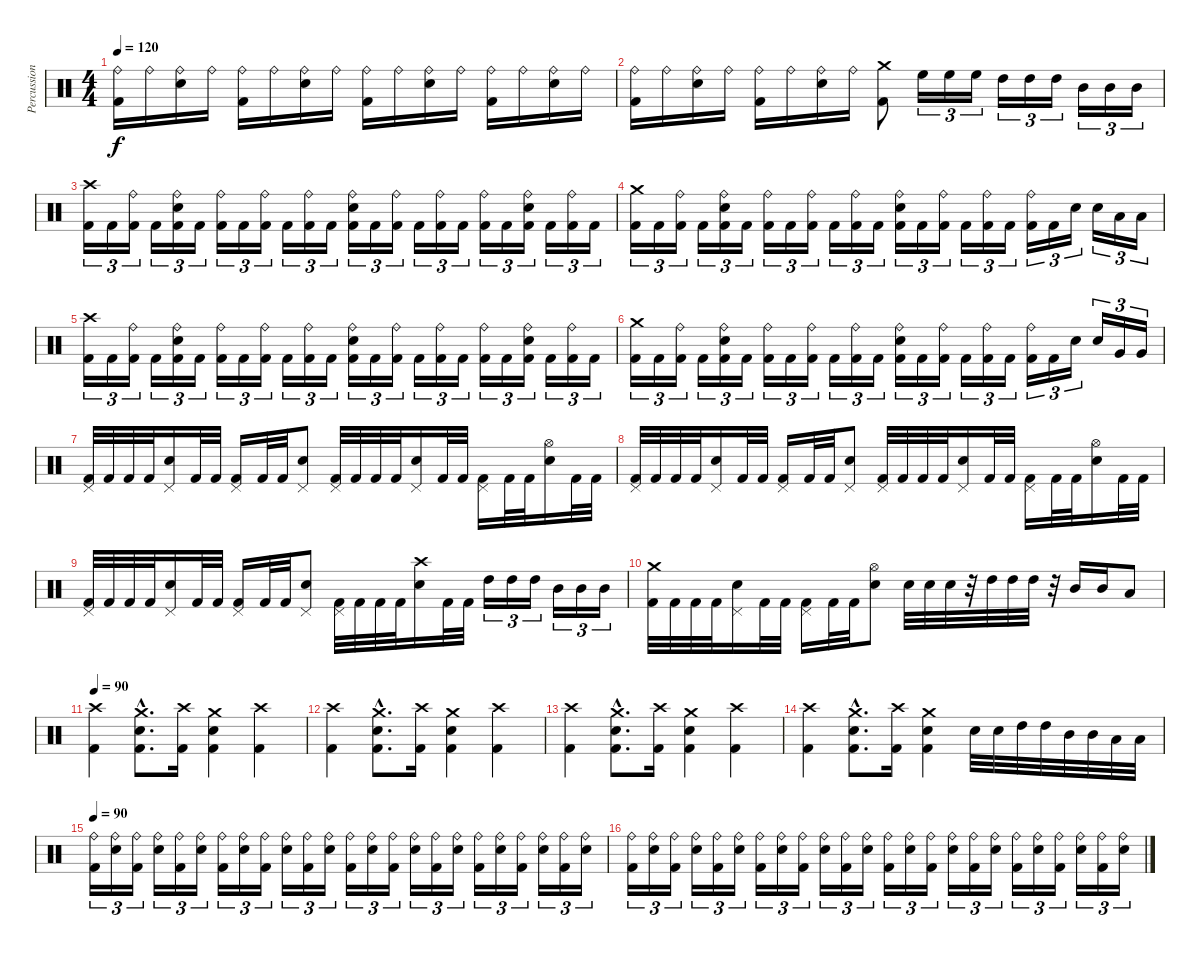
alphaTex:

\track ("Percussion" "Percussion") {instrument percussion}
\staff {score}
\articulation defaults
\ts (4 4)
\tempo 120
\clef neutral
\ks c
("Ride (bell)" "Kick (hit) 2").16{dy f} "Ride (bell)".16 ("Ride (bell)" "Electric Snare (hit)").16 "Ride (bell)".16 ("Ride (bell)" "Kick (hit) 2").16 "Ride (bell)".16 ("Ride (bell)" "Electric Snare (hit)").16 "Ride (bell)".16 ("Ride (bell)" "Kick (hit) 2").16 "Ride (bell)".16 ("Ride (bell)" "Electric Snare (hit)").16 "Ride (bell)".16 ("Ride (bell)" "Kick (hit) 2").16 "Ride (bell)".16 ("Ride (bell)" "Electric Snare (hit)").16 "Ride (bell)".16 |
("Ride (bell)" "Kick (hit) 2").16 "Ride (bell)".16 ("Ride (bell)" "Electric Snare (hit)").16 "Ride (bell)".16 ("Ride (bell)" "Kick (hit) 2").16 "Ride (bell)".16 ("Ride (bell)" "Electric Snare (hit)").16 "Ride (bell)".16 ("Crash medium (hit)" "Kick (hit) 2").8 "High Floor Tom (hit)".16{tu (3 2)} "High Floor Tom (hit)".16{tu (3 2)} "High Floor Tom (hit)".16{tu (3 2)} "High Tom (hit)".16{tu (3 2)} "High Tom (hit)".16{tu (3 2)} "High Tom (hit)".16{tu (3 2)} "Mid Tom (hit)".16{tu (3 2)} "Mid Tom (hit)".16{tu (3 2)} "Mid Tom (hit)".16{tu (3 2)} |
("Crash high (hit)" "Kick (hit) 2").16{tu (3 2)} "Kick (hit) 2".16{tu (3 2)} ("Ride (bell)" "Kick (hit) 2").16{tu (3 2)} "Kick (hit) 2".16{tu (3 2)} ("Ride (bell)" "Electric Snare (hit)" "Kick (hit) 2").16{tu (3 2)} "Kick (hit) 2".16{tu (3 2)} ("Ride (bell)" "Kick (hit) 2").16{tu (3 2)} "Kick (hit) 2".16{tu (3 2)} ("Ride (bell)" "Kick (hit) 2").16{tu (3 2)} "Kick (hit) 2".16{tu (3 2)} ("Ride (bell)" "Kick (hit) 2").16{tu (3 2)} "Kick (hit) 2".16{tu (3 2)} ("Ride (bell)" "Electric Snare (hit)" "Kick (hit) 2").16{tu (3 2)} "Kick (hit) 2".16{tu (3 2)} ("Ride (bell)" "Kick (hit) 2").16{tu (3 2)} "Kick (hit) 2".16{tu (3 2)} ("Ride (bell)" "Kick (hit) 2").16{tu (3 2)} "Kick (hit) 2".16{tu (3 2)} ("Ride (bell)" "Kick (hit) 2").16{tu (3 2)} "Kick (hit) 2".16{tu (3 2)} ("Ride (bell)" "Electric Snare (hit)" "Kick (hit) 2").16{tu (3 2)} "Kick (hit) 2".16{tu (3 2)} ("Ride (bell)" "Kick (hit) 2").16{tu (3 2)} "Kick (hit) 2".16{tu (3 2)} |
("Crash medium (hit)" "Kick (hit) 2").16{tu (3 2)} "Kick (hit) 2".16{tu (3 2)} ("Ride (bell)" "Kick (hit) 2").16{tu (3 2)} "Kick (hit) 2".16{tu (3 2)} ("Ride (bell)" "Electric Snare (hit)" "Kick (hit) 2").16{tu (3 2)} "Kick (hit) 2".16{tu (3 2)} ("Ride (bell)" "Kick (hit) 2").16{tu (3 2)} "Kick (hit) 2".16{tu (3 2)} ("Ride (bell)" "Kick (hit) 2").16{tu (3 2)} "Kick (hit) 2".16{tu (3 2)} ("Ride (bell)" "Kick (hit) 2").16{tu (3 2)} "Kick (hit) 2".16{tu (3 2)} ("Ride (bell)" "Electric Snare (hit)" "Kick (hit) 2").16{tu (3 2)} "Kick (hit) 2".16{tu (3 2)} ("Ride (bell)" "Kick (hit) 2").16{tu (3 2)} "Kick (hit) 2".16{tu (3 2)} ("Ride (bell)" "Kick (hit) 2").16{tu (3 2)} "Kick (hit) 2".16{tu (3 2)} ("Ride (bell)" "Kick (hit) 2").16{tu (3 2)} "Kick (hit) 2".16{tu (3 2)} "Electric Snare (hit)".16{tu (3 2)} "Electric Snare (hit)".16{tu (3 2)} "Low Tom (hit)".16{tu (3 2)} "Low Tom (hit)".16{tu (3 2)} |
("Crash high (hit)" "Kick (hit) 2").16{tu (3 2)} "Kick (hit) 2".16{tu (3 2)} ("Ride (bell)" "Kick (hit) 2").16{tu (3 2)} "Kick (hit) 2".16{tu (3 2)} ("Ride (bell)" "Electric Snare (hit)" "Kick (hit) 2").16{tu (3 2)} "Kick (hit) 2".16{tu (3 2)} ("Ride (bell)" "Kick (hit) 2").16{tu (3 2)} "Kick (hit) 2".16{tu (3 2)} ("Ride (bell)" "Kick (hit) 2").16{tu (3 2)} "Kick (hit) 2".16{tu (3 2)} ("Ride (bell)" "Kick (hit) 2").16{tu (3 2)} "Kick (hit) 2".16{tu (3 2)} ("Ride (bell)" "Electric Snare (hit)" "Kick (hit) 2").16{tu (3 2)} "Kick (hit) 2".16{tu (3 2)} ("Ride (bell)" "Kick (hit) 2").16{tu (3 2)} "Kick (hit) 2".16{tu (3 2)} ("Ride (bell)" "Kick (hit) 2").16{tu (3 2)} "Kick (hit) 2".16{tu (3 2)} ("Ride (bell)" "Kick (hit) 2").16{tu (3 2)} "Kick (hit) 2".16{tu (3 2)} ("Ride (bell)" "Electric Snare (hit)" "Kick (hit) 2").16{tu (3 2)} "Kick (hit) 2".16{tu (3 2)} ("Ride (bell)" "Kick (hit) 2").16{tu (3 2)} "Kick (hit) 2".16{tu (3 2)} |
("Crash medium (hit)" "Kick (hit) 2").16{tu (3 2)} "Kick (hit) 2".16{tu (3 2)} ("Ride (bell)" "Kick (hit) 2").16{tu (3 2)} "Kick (hit) 2".16{tu (3 2)} ("Ride (bell)" "Electric Snare (hit)" "Kick (hit) 2").16{tu (3 2)} "Kick (hit) 2".16{tu (3 2)} ("Ride (bell)" "Kick (hit) 2").16{tu (3 2)} "Kick (hit) 2".16{tu (3 2)} ("Ride (bell)" "Kick (hit) 2").16{tu (3 2)} "Kick (hit) 2".16{tu (3 2)} ("Ride (bell)" "Kick (hit) 2").16{tu (3 2)} "Kick (hit) 2".16{tu (3 2)} ("Ride (bell)" "Electric Snare (hit)" "Kick (hit) 2").16{tu (3 2)} "Kick (hit) 2".16{tu (3 2)} ("Ride (bell)" "Kick (hit) 2").16{tu (3 2)} "Kick (hit) 2".16{tu (3 2)} ("Ride (bell)" "Kick (hit) 2").16{tu (3 2)} "Kick (hit) 2".16{tu (3 2)} ("Ride (bell)" "Kick (hit) 2").16{tu (3 2)} "Kick (hit) 2".16{tu (3 2)} "Electric Snare (hit)".16{tu (3 2)} "Electric Snare (hit)".16{tu (3 2)} "Very Low Tom (hit)".16{tu (3 2)} "Very Low Tom (hit)".16{tu (3 2)} |
("Pedal Hi-Hat (hit)" "Kick (hit) 2").32 "Kick (hit) 2".32 "Kick (hit) 2".32 "Kick (hit) 2".32 ("Pedal Hi-Hat (hit)" "Electric Snare (hit)").16 "Kick (hit) 2".32 "Kick (hit) 2".32 ("Pedal Hi-Hat (hit)" "Kick (hit) 2").16 "Kick (hit) 2".32 "Kick (hit) 2".32 ("Pedal Hi-Hat (hit)" "Electric Snare (hit)").8 ("Pedal Hi-Hat (hit)" "Kick (hit) 2").32 "Kick (hit) 2".32 "Kick (hit) 2".32 "Kick (hit) 2".32 ("Pedal Hi-Hat (hit)" "Electric Snare (hit)").16 "Kick (hit) 2".32 "Kick (hit) 2".32 ("Pedal Hi-Hat (hit)" "Kick (hit) 2").16 "Kick (hit) 2".32 "Kick (hit) 2".32 ("Hi-Hat (open)" "Electric Snare (hit)").16 "Kick (hit) 2".32 "Kick (hit) 2".32 |
("Pedal Hi-Hat (hit)" "Kick (hit) 2").32 "Kick (hit) 2".32 "Kick (hit) 2".32 "Kick (hit) 2".32 ("Pedal Hi-Hat (hit)" "Electric Snare (hit)").16 "Kick (hit) 2".32 "Kick (hit) 2".32 ("Pedal Hi-Hat (hit)" "Kick (hit) 2").16 "Kick (hit) 2".32 "Kick (hit) 2".32 ("Pedal Hi-Hat (hit)" "Electric Snare (hit)").8 ("Pedal Hi-Hat (hit)" "Kick (hit) 2").32 "Kick (hit) 2".32 "Kick (hit) 2".32 "Kick (hit) 2".32 ("Pedal Hi-Hat (hit)" "Electric Snare (hit)").16 "Kick (hit) 2".32 "Kick (hit) 2".32 ("Pedal Hi-Hat (hit)" "Kick (hit) 2").16 "Kick (hit) 2".32 "Kick (hit) 2".32 ("Hi-Hat (open)" "Electric Snare (hit)").16 "Kick (hit) 2".32 "Kick (hit) 2".32 |
("Pedal Hi-Hat (hit)" "Kick (hit) 2").32 "Kick (hit) 2".32 "Kick (hit) 2".32 "Kick (hit) 2".32 ("Pedal Hi-Hat (hit)" "Electric Snare (hit)").16 "Kick (hit) 2".32 "Kick (hit) 2".32 ("Pedal Hi-Hat (hit)" "Kick (hit) 2").16 "Kick (hit) 2".32 "Kick (hit) 2".32 ("Pedal Hi-Hat (hit)" "Electric Snare (hit)").8 ("Pedal Hi-Hat (hit)" "Kick (hit) 2").32 "Kick (hit) 2".32 "Kick (hit) 2".32 "Kick (hit) 2".32 ("Crash high (hit)" "Electric Snare (hit)").16 "Kick (hit) 2".32 "Kick (hit) 2".32 "High Tom (hit)".16{tu (3 2)} "High Tom (hit)".16{tu (3 2)} "High Tom (hit)".16{tu (3 2)} "Mid Tom (hit)".16{tu (3 2)} "Mid Tom (hit)".16{tu (3 2)} "Mid Tom (hit)".16{tu (3 2)} |
("Crash medium (hit)" "Kick (hit) 2").32 "Kick (hit) 2".32 "Kick (hit) 2".32 "Kick (hit) 2".32 ("Pedal Hi-Hat (hit)" "Electric Snare (hit)").16 "Kick (hit) 2".32 "Kick (hit) 2".32 ("Pedal Hi-Hat (hit)" "Kick (hit) 2").16 "Kick (hit) 2".32 "Kick (hit) 2".32 ("Hi-Hat (open)" "Electric Snare (hit)").8 "Electric Snare (hit)".32 "Electric Snare (hit)".32 "Electric Snare (hit)".32 r.32 "High Tom (hit)".32 "High Tom (hit)".32 "High Tom (hit)".32 r.32 "Mid Tom (hit)".16 "Mid Tom (hit)".16 "Low Tom (hit)".8 |
\tempo 90
("Crash high (hit)" "Kick (hit) 2").4 ("Crash medium (hit)"{hac} "Electric Snare (hit)"{hac} "Kick (hit) 2"{hac}).8{d} ("Crash high (hit)" "Kick (hit) 2").16 ("Crash medium (hit)" "Electric Snare (hit)" "Kick (hit) 2").4 ("Crash high (hit)" "Kick (hit) 2").4 |
("Crash high (hit)" "Kick (hit) 2").4 ("Crash medium (hit)"{hac} "Electric Snare (hit)"{hac} "Kick (hit) 2"{hac}).8{d} ("Crash high (hit)" "Kick (hit) 2").16 ("Crash medium (hit)" "Electric Snare (hit)" "Kick (hit) 2").4 ("Crash high (hit)" "Kick (hit) 2").4 |
("Crash high (hit)" "Kick (hit) 2").4 ("Crash medium (hit)"{hac} "Electric Snare (hit)"{hac} "Kick (hit) 2"{hac}).8{d} ("Crash high (hit)" "Kick (hit) 2").16 ("Crash medium (hit)" "Electric Snare (hit)" "Kick (hit) 2").4 ("Crash high (hit)" "Kick (hit) 2").4 |
("Crash high (hit)" "Kick (hit) 2").4 ("Crash medium (hit)"{hac} "Electric Snare (hit)"{hac} "Kick (hit) 2"{hac}).8{d} ("Crash high (hit)" "Kick (hit) 2").16 ("Crash medium (hit)" "Electric Snare (hit)" "Kick (hit) 2").4 "Electric Snare (hit)".32 "Electric Snare (hit)".32 "High Tom (hit)".32 "High Tom (hit)".32 "Mid Tom (hit)".32 "Mid Tom (hit)".32 "Low Tom (hit)".32 "Low Tom (hit)".32 |
\tempo 90
("Ride (bell)" "Kick (hit) 2").16{tu (3 2)} ("Ride (bell)" "Electric Snare (hit)").16{tu (3 2)} ("Ride (bell)" "Kick (hit) 2").16{tu (3 2)} ("Ride (bell)" "Electric Snare (hit)").16{tu (3 2)} ("Ride (bell)" "Kick (hit) 2").16{tu (3 2)} ("Ride (bell)" "Electric Snare (hit)").16{tu (3 2)} ("Ride (bell)" "Kick (hit) 2").16{tu (3 2)} ("Ride (bell)" "Electric Snare (hit)").16{tu (3 2)} ("Ride (bell)" "Kick (hit) 2").16{tu (3 2)} ("Ride (bell)" "Electric Snare (hit)").16{tu (3 2)} ("Ride (bell)" "Kick (hit) 2").16{tu (3 2)} ("Ride (bell)" "Electric Snare (hit)").16{tu (3 2)} ("Ride (bell)" "Kick (hit) 2").16{tu (3 2)} ("Ride (bell)" "Electric Snare (hit)").16{tu (3 2)} ("Ride (bell)" "Kick (hit) 2").16{tu (3 2)} ("Ride (bell)" "Electric Snare (hit)").16{tu (3 2)} ("Ride (bell)" "Kick (hit) 2").16{tu (3 2)} ("Ride (bell)" "Electric Snare (hit)").16{tu (3 2)} ("Ride (bell)" "Kick (hit) 2").16{tu (3 2)} ("Ride (bell)" "Electric Snare (hit)").16{tu (3 2)} ("Ride (bell)" "Kick (hit) 2").16{tu (3 2)} ("Ride (bell)" "Electric Snare (hit)").16{tu (3 2)} ("Ride (bell)" "Kick (hit) 2").16{tu (3 2)} ("Ride (bell)" "Electric Snare (hit)").16{tu (3 2)} |
("Ride (bell)" "Kick (hit) 2").16{tu (3 2)} ("Ride (bell)" "Electric Snare (hit)").16{tu (3 2)} ("Ride (bell)" "Kick (hit) 2").16{tu (3 2)} ("Ride (bell)" "Electric Snare (hit)").16{tu (3 2)} ("Ride (bell)" "Kick (hit) 2").16{tu (3 2)} ("Ride (bell)" "Electric Snare (hit)").16{tu (3 2)} ("Ride (bell)" "Kick (hit) 2").16{tu (3 2)} ("Ride (bell)" "Electric Snare (hit)").16{tu (3 2)} ("Ride (bell)" "Kick (hit) 2").16{tu (3 2)} ("Ride (bell)" "Electric Snare (hit)").16{tu (3 2)} ("Ride (bell)" "Kick (hit) 2").16{tu (3 2)} ("Ride (bell)" "Electric Snare (hit)").16{tu (3 2)} ("Ride (bell)" "Kick (hit) 2").16{tu (3 2)} ("Ride (bell)" "Electric Snare (hit)").16{tu (3 2)} ("Ride (bell)" "Kick (hit) 2").16{tu (3 2)} ("Ride (bell)" "Electric Snare (hit)").16{tu (3 2)} ("Ride (bell)" "Kick (hit) 2").16{tu (3 2)} ("Ride (bell)" "Electric Snare (hit)").16{tu (3 2)} ("Ride (bell)" "Kick (hit) 2").16{tu (3 2)} ("Ride (bell)" "Electric Snare (hit)").16{tu (3 2)} ("Ride (bell)" "Kick (hit) 2").16{tu (3 2)} ("Ride (bell)" "Electric Snare (hit)").16{tu (3 2)} ("Ride (bell)" "Kick (hit) 2").16{tu (3 2)} ("Ride (bell)" "Electric Snare (hit)").16{tu (3 2)}
